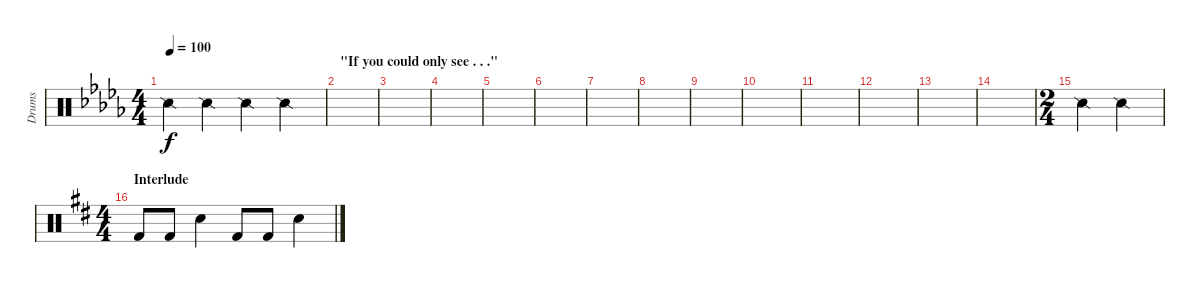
\track ("Drums" "Drums") {instrument percussion}
\staff {score}
\articulation defaults
\ts (4 4)
\tempo 100
\clef neutral
\ks bbminor "Snare (side stick) 2".4{dy f} "Snare (side stick) 2".4 "Snare (side stick) 2".4 "Snare (side stick) 2".4
|
\section ("" "\"If you could only see . . .\"")
|
|
|
|
|
|
|
|
|
|
|
|
|
\ts (2 4)
"Snare (side stick) 2".4 "Snare (side stick) 2".4 |
\ts (4 4)
\section ("" "Interlude")
\ks d "Kick (hit) 2".8 "Kick (hit) 2".8 "Snare (hit) 2".4 "Kick (hit) 2".8 "Kick (hit) 2".8 "Snare (hit) 2".4
